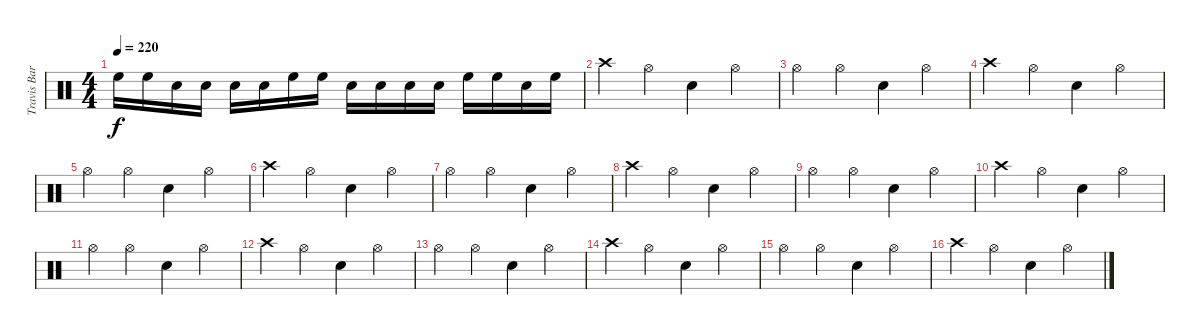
\track ("Travis Barker" "Travis Bar") {instrument percussion}
\staff {score}
\articulation defaults
\ts (4 4)
\tempo 220
\clef neutral
\ks c "High Floor Tom (hit)".16{dy f} "High Floor Tom (hit)".16 "Snare (hit) 2".16 "Snare (hit) 2".16 "Snare (hit) 2".16 "Snare (hit) 2".16 "High Floor Tom (hit)".16 "High Floor Tom (hit)".16 "Snare (hit) 2".16 "Snare (hit) 2".16 "Snare (hit) 2".16 "Snare (hit) 2".16 "High Floor Tom (hit)".16 "High Floor Tom (hit)".16 "Snare (hit) 2".16 "High Floor Tom (hit)".16
|
"Crash high (hit)".4 "Hi-Hat (open)".4 "Snare (hit) 2".4 "Hi-Hat (open)".4 |
"Hi-Hat (open)".4 "Hi-Hat (open)".4 "Snare (hit) 2".4 "Hi-Hat (open)".4 |
"Crash high (hit)".4 "Hi-Hat (open)".4 "Snare (hit) 2".4 "Hi-Hat (open)".4 |
"Hi-Hat (open)".4 "Hi-Hat (open)".4 "Snare (hit) 2".4 "Hi-Hat (open)".4 |
"Crash high (hit)".4 "Hi-Hat (open)".4 "Snare (hit) 2".4 "Hi-Hat (open)".4 |
"Hi-Hat (open)".4 "Hi-Hat (open)".4 "Snare (hit) 2".4 "Hi-Hat (open)".4 |
"Crash high (hit)".4 "Hi-Hat (open)".4 "Snare (hit) 2".4 "Hi-Hat (open)".4 |
"Hi-Hat (open)".4 "Hi-Hat (open)".4 "Snare (hit) 2".4 "Hi-Hat (open)".4 |
"Crash high (hit)".4 "Hi-Hat (open)".4 "Snare (hit) 2".4 "Hi-Hat (open)".4 |
"Hi-Hat (open)".4 "Hi-Hat (open)".4 "Snare (hit) 2".4 "Hi-Hat (open)".4 |
"Crash high (hit)".4 "Hi-Hat (open)".4 "Snare (hit) 2".4 "Hi-Hat (open)".4 |
"Hi-Hat (open)".4 "Hi-Hat (open)".4 "Snare (hit) 2".4 "Hi-Hat (open)".4 |
"Crash high (hit)".4 "Hi-Hat (open)".4 "Snare (hit) 2".4 "Hi-Hat (open)".4 |
"Hi-Hat (open)".4 "Hi-Hat (open)".4 "Snare (hit) 2".4 "Hi-Hat (open)".4 |
"Crash high (hit)".4 "Hi-Hat (open)".4 "Snare (hit) 2".4 "Hi-Hat (open)".4
